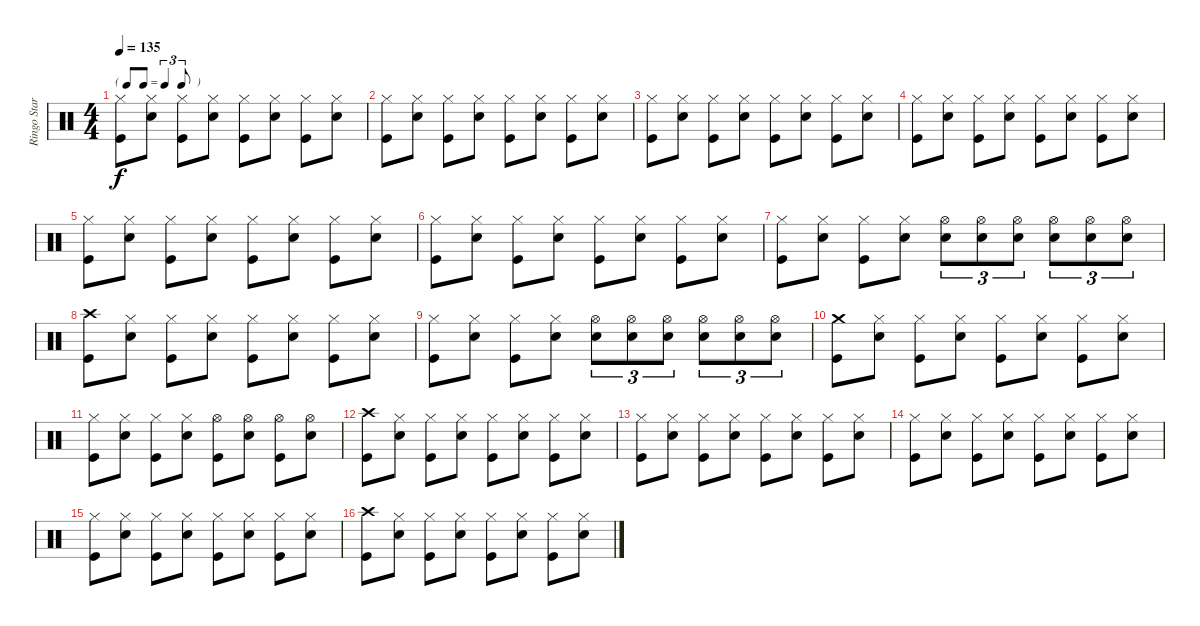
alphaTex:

\track ("Ringo Star" "Ringo Star") {instrument percussion}
\staff {score}
\articulation defaults
\ts (4 4)
\tf triplet8th
\tempo 135
\clef neutral
\ks c
("Hi-Hat (closed)" "Kick (hit)").8{dy f} ("Hi-Hat (closed)" "Snare (hit) 2").8 ("Hi-Hat (closed)" "Kick (hit)").8 ("Hi-Hat (closed)" "Snare (hit) 2").8 ("Hi-Hat (closed)" "Kick (hit)").8 ("Hi-Hat (closed)" "Snare (hit) 2").8 ("Hi-Hat (closed)" "Kick (hit)").8 ("Hi-Hat (closed)" "Snare (hit) 2").8 |
("Hi-Hat (closed)" "Kick (hit)").8 ("Hi-Hat (closed)" "Snare (hit) 2").8 ("Hi-Hat (closed)" "Kick (hit)").8 ("Hi-Hat (closed)" "Snare (hit) 2").8 ("Hi-Hat (closed)" "Kick (hit)").8 ("Hi-Hat (closed)" "Snare (hit) 2").8 ("Hi-Hat (closed)" "Kick (hit)").8 ("Hi-Hat (closed)" "Snare (hit) 2").8 |
("Hi-Hat (closed)" "Kick (hit)").8 ("Hi-Hat (closed)" "Snare (hit) 2").8 ("Hi-Hat (closed)" "Kick (hit)").8 ("Hi-Hat (closed)" "Snare (hit) 2").8 ("Hi-Hat (closed)" "Kick (hit)").8 ("Hi-Hat (closed)" "Snare (hit) 2").8 ("Hi-Hat (closed)" "Kick (hit)").8 ("Hi-Hat (closed)" "Snare (hit) 2").8 |
("Hi-Hat (closed)" "Kick (hit)").8 ("Hi-Hat (closed)" "Snare (hit) 2").8 ("Hi-Hat (closed)" "Kick (hit)").8 ("Hi-Hat (closed)" "Snare (hit) 2").8 ("Hi-Hat (closed)" "Kick (hit)").8 ("Hi-Hat (closed)" "Snare (hit) 2").8 ("Hi-Hat (closed)" "Kick (hit)").8 ("Hi-Hat (closed)" "Snare (hit) 2").8 |
("Hi-Hat (closed)" "Kick (hit)").8 ("Hi-Hat (closed)" "Snare (hit) 2").8 ("Hi-Hat (closed)" "Kick (hit)").8 ("Hi-Hat (closed)" "Snare (hit) 2").8 ("Hi-Hat (closed)" "Kick (hit)").8 ("Hi-Hat (closed)" "Snare (hit) 2").8 ("Hi-Hat (closed)" "Kick (hit)").8 ("Hi-Hat (closed)" "Snare (hit) 2").8 |
("Hi-Hat (closed)" "Kick (hit)").8 ("Hi-Hat (closed)" "Snare (hit) 2").8 ("Hi-Hat (closed)" "Kick (hit)").8 ("Hi-Hat (closed)" "Snare (hit) 2").8 ("Hi-Hat (closed)" "Kick (hit)").8 ("Hi-Hat (closed)" "Snare (hit) 2").8 ("Hi-Hat (closed)" "Kick (hit)").8 ("Hi-Hat (closed)" "Snare (hit) 2").8 |
("Hi-Hat (closed)" "Kick (hit)").8 ("Hi-Hat (closed)" "Snare (hit) 2").8 ("Hi-Hat (closed)" "Kick (hit)").8 ("Hi-Hat (closed)" "Snare (hit) 2").8 ("Hi-Hat (open)" "Snare (hit) 2").8{tu (3 2)} ("Hi-Hat (open)" "Snare (hit) 2").8{tu (3 2)} ("Hi-Hat (open)" "Snare (hit) 2").8{tu (3 2)} ("Hi-Hat (open)" "Snare (hit) 2").8{tu (3 2)} ("Hi-Hat (open)" "Snare (hit) 2").8{tu (3 2)} ("Hi-Hat (open)" "Snare (hit) 2").8{tu (3 2)} |
("Crash high (hit)" "Kick (hit)").8 ("Hi-Hat (closed)" "Snare (hit) 2").8 ("Hi-Hat (closed)" "Kick (hit)").8 ("Hi-Hat (closed)" "Snare (hit) 2").8 ("Hi-Hat (closed)" "Kick (hit)").8 ("Hi-Hat (closed)" "Snare (hit) 2").8 ("Hi-Hat (closed)" "Kick (hit)").8 ("Hi-Hat (closed)" "Snare (hit) 2").8 |
("Hi-Hat (closed)" "Kick (hit)").8 ("Hi-Hat (closed)" "Snare (hit) 2").8 ("Hi-Hat (closed)" "Kick (hit)").8 ("Hi-Hat (closed)" "Snare (hit) 2").8 ("Hi-Hat (open)" "Snare (hit) 2").8{tu (3 2)} ("Hi-Hat (open)" "Snare (hit) 2").8{tu (3 2)} ("Hi-Hat (open)" "Snare (hit) 2").8{tu (3 2)} ("Hi-Hat (open)" "Snare (hit) 2").8{tu (3 2)} ("Hi-Hat (open)" "Snare (hit) 2").8{tu (3 2)} ("Hi-Hat (open)" "Snare (hit) 2").8{tu (3 2)} |
("Crash medium (hit)" "Kick (hit)").8 ("Hi-Hat (closed)" "Snare (hit) 2").8 ("Hi-Hat (closed)" "Kick (hit)").8 ("Hi-Hat (closed)" "Snare (hit) 2").8 ("Hi-Hat (closed)" "Kick (hit)").8 ("Hi-Hat (closed)" "Snare (hit) 2").8 ("Hi-Hat (closed)" "Kick (hit)").8 ("Hi-Hat (closed)" "Snare (hit) 2").8 |
("Hi-Hat (closed)" "Kick (hit)").8 ("Hi-Hat (closed)" "Snare (hit) 2").8 ("Hi-Hat (closed)" "Kick (hit)").8 ("Hi-Hat (closed)" "Snare (hit) 2").8 ("Hi-Hat (open)" "Kick (hit)").8 ("Hi-Hat (open)" "Snare (hit) 2").8 ("Hi-Hat (open)" "Kick (hit)").8 ("Hi-Hat (open)" "Snare (hit) 2").8 |
("Crash high (hit)" "Kick (hit)").8 ("Hi-Hat (closed)" "Snare (hit) 2").8 ("Hi-Hat (closed)" "Kick (hit)").8 ("Hi-Hat (closed)" "Snare (hit) 2").8 ("Hi-Hat (closed)" "Kick (hit)").8 ("Hi-Hat (closed)" "Snare (hit) 2").8 ("Hi-Hat (closed)" "Kick (hit)").8 ("Hi-Hat (closed)" "Snare (hit) 2").8 |
("Hi-Hat (closed)" "Kick (hit)").8 ("Hi-Hat (closed)" "Snare (hit) 2").8 ("Hi-Hat (closed)" "Kick (hit)").8 ("Hi-Hat (closed)" "Snare (hit) 2").8 ("Hi-Hat (closed)" "Kick (hit)").8 ("Hi-Hat (closed)" "Snare (hit) 2").8 ("Hi-Hat (closed)" "Kick (hit)").8 ("Hi-Hat (closed)" "Snare (hit) 2").8 |
("Hi-Hat (closed)" "Kick (hit)").8 ("Hi-Hat (closed)" "Snare (hit) 2").8 ("Hi-Hat (closed)" "Kick (hit)").8 ("Hi-Hat (closed)" "Snare (hit) 2").8 ("Hi-Hat (closed)" "Kick (hit)").8 ("Hi-Hat (closed)" "Snare (hit) 2").8 ("Hi-Hat (closed)" "Kick (hit)").8 ("Hi-Hat (closed)" "Snare (hit) 2").8 |
("Hi-Hat (closed)" "Kick (hit)").8 ("Hi-Hat (closed)" "Snare (hit) 2").8 ("Hi-Hat (closed)" "Kick (hit)").8 ("Hi-Hat (closed)" "Snare (hit) 2").8 ("Hi-Hat (closed)" "Kick (hit)").8 ("Hi-Hat (closed)" "Snare (hit) 2").8 ("Hi-Hat (closed)" "Kick (hit)").8 ("Hi-Hat (closed)" "Snare (hit) 2").8 |
("Crash high (hit)" "Kick (hit)").8 ("Hi-Hat (closed)" "Snare (hit) 2").8 ("Hi-Hat (closed)" "Kick (hit)").8 ("Hi-Hat (closed)" "Snare (hit) 2").8 ("Hi-Hat (closed)" "Kick (hit)").8 ("Hi-Hat (closed)" "Snare (hit) 2").8 ("Hi-Hat (closed)" "Kick (hit)").8 ("Hi-Hat (closed)" "Snare (hit) 2").8
